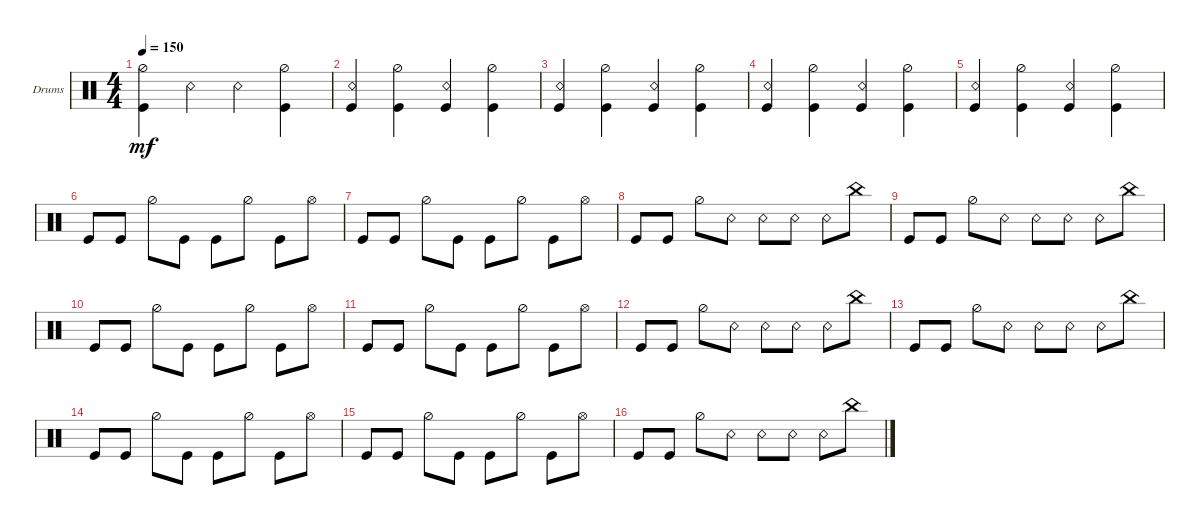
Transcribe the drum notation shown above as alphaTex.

\bracketExtendMode groupsimilarinstruments
\firstSystemTrackNameOrientation horizontal
\otherSystemsTrackNameOrientation horizontal
\track ("Drumkit" "Drums") {instrument percussion}
\staff {score}
\articulation defaults
\ts (4 4)
\tempo 150
\clef neutral
\ks c
("Hi-Hat (half)" "Kick (hit)").4{dy mf} "Snare (rim shot)".4 "Snare (rim shot)".4 ("Hi-Hat (half)" "Kick (hit)").4 |
("Kick (hit)" "Snare (rim shot)").4 ("Kick (hit)" "Hi-Hat (half)").4 ("Kick (hit)" "Snare (rim shot)").4 ("Kick (hit)" "Hi-Hat (half)").4 |
("Kick (hit)" "Snare (rim shot)").4 ("Kick (hit)" "Hi-Hat (half)").4 ("Kick (hit)" "Snare (rim shot)").4 ("Kick (hit)" "Hi-Hat (half)").4 |
("Kick (hit)" "Snare (rim shot)").4 ("Kick (hit)" "Hi-Hat (half)").4 ("Kick (hit)" "Snare (rim shot)").4 ("Kick (hit)" "Hi-Hat (half)").4 |
("Kick (hit)" "Snare (rim shot)").4 ("Kick (hit)" "Hi-Hat (half)").4 ("Kick (hit)" "Snare (rim shot)").4 ("Kick (hit)" "Hi-Hat (half)").4 |
"Kick (hit)".8 "Kick (hit)".8 "Hi-Hat (half)".8 "Kick (hit)".8 "Kick (hit)".8 "Hi-Hat (half)".8 "Kick (hit)".8 "Hi-Hat (open)".8 |
"Kick (hit)".8 "Kick (hit)".8 "Hi-Hat (half)".8 "Kick (hit)".8 "Kick (hit)".8 "Hi-Hat (half)".8 "Kick (hit)".8 "Hi-Hat (open)".8 |
"Kick (hit)".8 "Kick (hit)".8 "Hi-Hat (half)".8 "Snare (rim shot)".8 "Snare (rim shot)".8 "Snare (rim shot)".8 "Snare (rim shot)".8 "China (hit)".8 |
"Kick (hit)".8 "Kick (hit)".8 "Hi-Hat (half)".8 "Snare (rim shot)".8 "Snare (rim shot)".8 "Snare (rim shot)".8 "Snare (rim shot)".8 "China (hit)".8 |
"Kick (hit)".8 "Kick (hit)".8 "Hi-Hat (half)".8 "Kick (hit)".8 "Kick (hit)".8 "Hi-Hat (half)".8 "Kick (hit)".8 "Hi-Hat (open)".8 |
"Kick (hit)".8 "Kick (hit)".8 "Hi-Hat (half)".8 "Kick (hit)".8 "Kick (hit)".8 "Hi-Hat (half)".8 "Kick (hit)".8 "Hi-Hat (open)".8 |
"Kick (hit)".8 "Kick (hit)".8 "Hi-Hat (half)".8 "Snare (rim shot)".8 "Snare (rim shot)".8 "Snare (rim shot)".8 "Snare (rim shot)".8 "China (hit)".8 |
"Kick (hit)".8 "Kick (hit)".8 "Hi-Hat (half)".8 "Snare (rim shot)".8 "Snare (rim shot)".8 "Snare (rim shot)".8 "Snare (rim shot)".8 "China (hit)".8 |
"Kick (hit)".8 "Kick (hit)".8 "Hi-Hat (half)".8 "Kick (hit)".8 "Kick (hit)".8 "Hi-Hat (half)".8 "Kick (hit)".8 "Hi-Hat (open)".8 |
"Kick (hit)".8 "Kick (hit)".8 "Hi-Hat (half)".8 "Kick (hit)".8 "Kick (hit)".8 "Hi-Hat (half)".8 "Kick (hit)".8 "Hi-Hat (open)".8 |
"Kick (hit)".8 "Kick (hit)".8 "Hi-Hat (half)".8 "Snare (rim shot)".8 "Snare (rim shot)".8 "Snare (rim shot)".8 "Snare (rim shot)".8 "China (hit)".8
